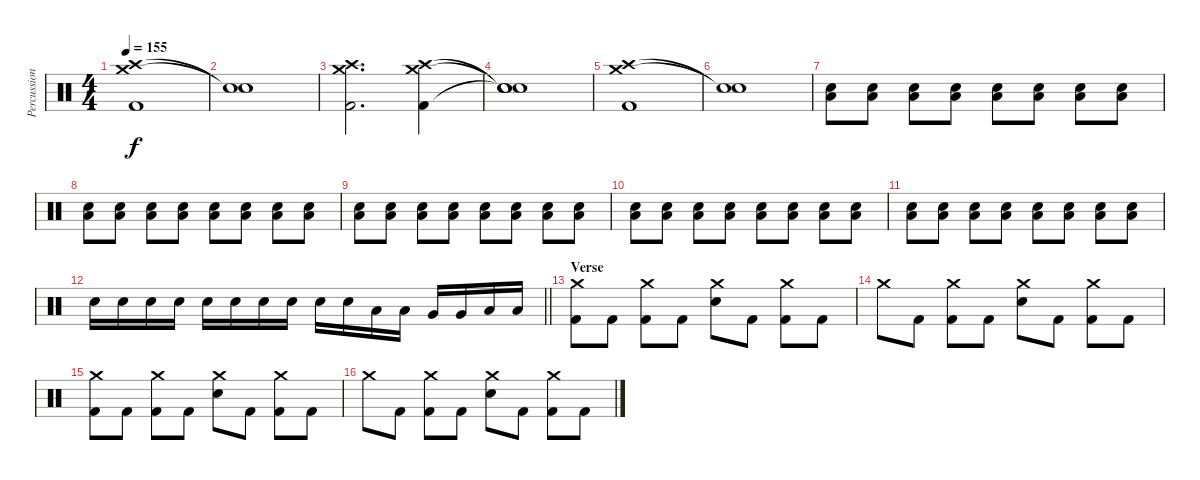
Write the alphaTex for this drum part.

\track ("Percussion" "Percussion") {instrument percussion}
\staff {score}
\articulation defaults
\ts (4 4)
\tempo 155
\clef neutral
\ks c
("Crash medium (hit)" "Crash high (hit)" "Kick (hit) 2").1{dy f} |
("Snare (hit)"{t} "Snare (hit)"{t}).1 |
("Crash medium (hit)" "Crash high (hit)" "Kick (hit) 2").2{d} ("Crash medium (hit)" "Crash high (hit)" "Kick (hit) 2").4 |
("Snare (hit)"{t} "Snare (hit)"{t} "Snare (hit)"{t}).1 |
("Crash medium (hit)" "Crash high (hit)" "Kick (hit) 2").1 |
("Snare (hit)"{t} "Snare (hit)"{t}).1 |
("Electric Snare (hit)" "Low Floor Tom (hit)").8{volume 0} ("Electric Snare (hit)" "Low Floor Tom (hit)").8{volume 16} ("Electric Snare (hit)" "Low Floor Tom (hit)").8 ("Electric Snare (hit)" "Low Floor Tom (hit)").8 ("Electric Snare (hit)" "Low Floor Tom (hit)").8 ("Electric Snare (hit)" "Low Floor Tom (hit)").8 ("Electric Snare (hit)" "Low Floor Tom (hit)").8 ("Electric Snare (hit)" "Low Floor Tom (hit)").8 |
("Electric Snare (hit)" "Low Floor Tom (hit)").8 ("Electric Snare (hit)" "Low Floor Tom (hit)").8 ("Electric Snare (hit)" "Low Floor Tom (hit)").8 ("Electric Snare (hit)" "Low Floor Tom (hit)").8 ("Electric Snare (hit)" "Low Floor Tom (hit)").8 ("Electric Snare (hit)" "Low Floor Tom (hit)").8 ("Electric Snare (hit)" "Low Floor Tom (hit)").8 ("Electric Snare (hit)" "Low Floor Tom (hit)").8 |
("Electric Snare (hit)" "Low Floor Tom (hit)").8 ("Electric Snare (hit)" "Low Floor Tom (hit)").8 ("Electric Snare (hit)" "Low Floor Tom (hit)").8 ("Electric Snare (hit)" "Low Floor Tom (hit)").8 ("Electric Snare (hit)" "Low Floor Tom (hit)").8 ("Electric Snare (hit)" "Low Floor Tom (hit)").8 ("Electric Snare (hit)" "Low Floor Tom (hit)").8 ("Electric Snare (hit)" "Low Floor Tom (hit)").8 |
("Electric Snare (hit)" "Low Floor Tom (hit)").8 ("Electric Snare (hit)" "Low Floor Tom (hit)").8 ("Electric Snare (hit)" "Low Floor Tom (hit)").8 ("Electric Snare (hit)" "Low Floor Tom (hit)").8 ("Electric Snare (hit)" "Low Floor Tom (hit)").8 ("Electric Snare (hit)" "Low Floor Tom (hit)").8 ("Electric Snare (hit)" "Low Floor Tom (hit)").8 ("Electric Snare (hit)" "Low Floor Tom (hit)").8 |
("Electric Snare (hit)" "Low Floor Tom (hit)").8 ("Electric Snare (hit)" "Low Floor Tom (hit)").8 ("Electric Snare (hit)" "Low Floor Tom (hit)").8 ("Electric Snare (hit)" "Low Floor Tom (hit)").8 ("Electric Snare (hit)" "Low Floor Tom (hit)").8 ("Electric Snare (hit)" "Low Floor Tom (hit)").8 ("Electric Snare (hit)" "Low Floor Tom (hit)").8 ("Electric Snare (hit)" "Low Floor Tom (hit)").8 |
\barLineRight lightlight "Electric Snare (hit)".16 "Electric Snare (hit)".16 "Electric Snare (hit)".16 "Electric Snare (hit)".16 "Electric Snare (hit)".16 "Electric Snare (hit)".16 "Electric Snare (hit)".16 "Electric Snare (hit)".16 "Electric Snare (hit)".16 "Electric Snare (hit)".16 "Low Tom (hit)".16 "Low Tom (hit)".16 "Very Low Tom (hit)".16 "Very Low Tom (hit)".16 "Low Tom (hit)".16 "Low Tom (hit)".16
|
\section ("" "Verse")
("Crash medium (hit)" "Kick (hit) 2").8 "Kick (hit) 2".8 ("Crash medium (hit)" "Kick (hit) 2").8 "Kick (hit) 2".8 ("Crash medium (hit)" "Electric Snare (hit)").8 "Kick (hit) 2".8 ("Crash medium (hit)" "Kick (hit) 2").8 "Kick (hit) 2".8 |
"Crash medium (hit)".8 "Kick (hit) 2".8 ("Crash medium (hit)" "Kick (hit) 2").8 "Kick (hit) 2".8 ("Crash medium (hit)" "Electric Snare (hit)").8 "Kick (hit) 2".8 ("Crash medium (hit)" "Kick (hit) 2").8 "Kick (hit) 2".8 |
("Crash medium (hit)" "Kick (hit) 2").8 "Kick (hit) 2".8 ("Crash medium (hit)" "Kick (hit) 2").8 "Kick (hit) 2".8 ("Crash medium (hit)" "Electric Snare (hit)").8 "Kick (hit) 2".8 ("Crash medium (hit)" "Kick (hit) 2").8 "Kick (hit) 2".8 |
"Crash medium (hit)".8 "Kick (hit) 2".8 ("Crash medium (hit)" "Kick (hit) 2").8 "Kick (hit) 2".8 ("Crash medium (hit)" "Electric Snare (hit)").8 "Kick (hit) 2".8 ("Crash medium (hit)" "Kick (hit) 2").8 "Kick (hit) 2".8
